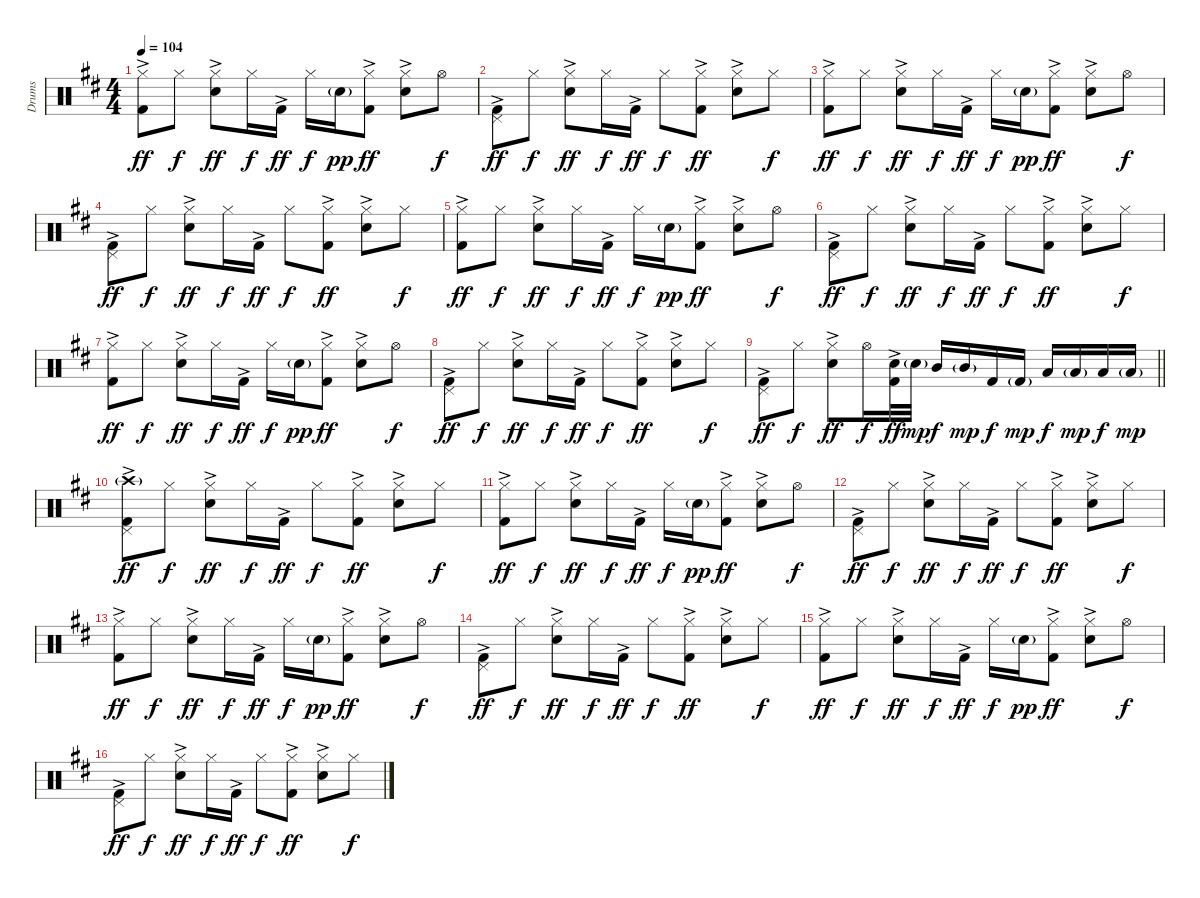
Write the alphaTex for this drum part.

\track ("Drums" "Drums") {instrument percussion}
\staff {score}
\articulation defaults
\ts (4 4)
\tempo 104
\clef neutral
\ks d
("Hi-Hat (closed)" "Kick (hit) 2"{ac}).8{dy ff} "Hi-Hat (closed)".8{dy f} ("Hi-Hat (closed)" "Snare (hit) 2"{ac}).8{dy ff} "Hi-Hat (closed)".16{dy f} "Kick (hit) 2"{ac}.16{dy ff} "Hi-Hat (closed)".16{dy f} "Snare (hit) 2"{g}.16{dy pp} ("Hi-Hat (closed)" "Kick (hit) 2"{ac}).8{dy ff} ("Hi-Hat (closed)" "Snare (hit) 2"{ac}).8 "Hi-Hat (open)".8{dy f} |
("Pedal Hi-Hat (hit)" "Kick (hit) 2"{ac}).8{dy ff} "Hi-Hat (closed)".8{dy f} ("Hi-Hat (closed)" "Snare (hit) 2"{ac}).8{dy ff} "Hi-Hat (closed)".16{dy f} "Kick (hit) 2"{ac}.16{dy ff} "Hi-Hat (closed)".8{dy f} ("Hi-Hat (closed)" "Kick (hit) 2"{ac}).8{dy ff} ("Hi-Hat (closed)" "Snare (hit) 2"{ac}).8 "Hi-Hat (closed)".8{dy f} |
("Hi-Hat (closed)" "Kick (hit) 2"{ac}).8{dy ff} "Hi-Hat (closed)".8{dy f} ("Hi-Hat (closed)" "Snare (hit) 2"{ac}).8{dy ff} "Hi-Hat (closed)".16{dy f} "Kick (hit) 2"{ac}.16{dy ff} "Hi-Hat (closed)".16{dy f} "Snare (hit) 2"{g}.16{dy pp} ("Hi-Hat (closed)" "Kick (hit) 2"{ac}).8{dy ff} ("Hi-Hat (closed)" "Snare (hit) 2"{ac}).8 "Hi-Hat (open)".8{dy f} |
("Pedal Hi-Hat (hit)" "Kick (hit) 2"{ac}).8{dy ff} "Hi-Hat (closed)".8{dy f} ("Hi-Hat (closed)" "Snare (hit) 2"{ac}).8{dy ff} "Hi-Hat (closed)".16{dy f} "Kick (hit) 2"{ac}.16{dy ff} "Hi-Hat (closed)".8{dy f} ("Hi-Hat (closed)" "Kick (hit) 2"{ac}).8{dy ff} ("Hi-Hat (closed)" "Snare (hit) 2"{ac}).8 "Hi-Hat (closed)".8{dy f} |
("Hi-Hat (closed)" "Kick (hit) 2"{ac}).8{dy ff} "Hi-Hat (closed)".8{dy f} ("Hi-Hat (closed)" "Snare (hit) 2"{ac}).8{dy ff} "Hi-Hat (closed)".16{dy f} "Kick (hit) 2"{ac}.16{dy ff} "Hi-Hat (closed)".16{dy f} "Snare (hit) 2"{g}.16{dy pp} ("Hi-Hat (closed)" "Kick (hit) 2"{ac}).8{dy ff} ("Hi-Hat (closed)" "Snare (hit) 2"{ac}).8 "Hi-Hat (open)".8{dy f} |
("Pedal Hi-Hat (hit)" "Kick (hit) 2"{ac}).8{dy ff} "Hi-Hat (closed)".8{dy f} ("Hi-Hat (closed)" "Snare (hit) 2"{ac}).8{dy ff} "Hi-Hat (closed)".16{dy f} "Kick (hit) 2"{ac}.16{dy ff} "Hi-Hat (closed)".8{dy f} ("Hi-Hat (closed)" "Kick (hit) 2"{ac}).8{dy ff} ("Hi-Hat (closed)" "Snare (hit) 2"{ac}).8 "Hi-Hat (closed)".8{dy f} |
("Hi-Hat (closed)" "Kick (hit) 2"{ac}).8{dy ff} "Hi-Hat (closed)".8{dy f} ("Hi-Hat (closed)" "Snare (hit) 2"{ac}).8{dy ff} "Hi-Hat (closed)".16{dy f} "Kick (hit) 2"{ac}.16{dy ff} "Hi-Hat (closed)".16{dy f} "Snare (hit) 2"{g}.16{dy pp} ("Hi-Hat (closed)" "Kick (hit) 2"{ac}).8{dy ff} ("Hi-Hat (closed)" "Snare (hit) 2"{ac}).8 "Hi-Hat (open)".8{dy f} |
("Pedal Hi-Hat (hit)" "Kick (hit) 2"{ac}).8{dy ff} "Hi-Hat (closed)".8{dy f} ("Hi-Hat (closed)" "Snare (hit) 2"{ac}).8{dy ff} "Hi-Hat (closed)".16{dy f} "Kick (hit) 2"{ac}.16{dy ff} "Hi-Hat (closed)".8{dy f} ("Hi-Hat (closed)" "Kick (hit) 2"{ac}).8{dy ff} ("Hi-Hat (closed)" "Snare (hit) 2"{ac}).8 "Hi-Hat (closed)".8{dy f} |
\barLineRight lightlight
("Pedal Hi-Hat (hit)" "Kick (hit) 2"{ac}).8{dy ff} "Hi-Hat (closed)".8{dy f} ("Hi-Hat (closed)" "Snare (hit) 2"{ac}).8{dy ff} "Hi-Hat (open)".16{dy f} ("Snare (hit) 2" "Kick (hit) 2"{ac}).32{dy ff} "Snare (hit) 2"{g}.32{dy mp} "Mid Tom (hit)".16{dy f} "Mid Tom (hit)"{g}.16{dy mp} "Kick (hit) 2".16{dy f} "Kick (hit) 2"{g}.16{dy mp} "Low Tom (hit)".16{dy f} "Low Tom (hit)"{g}.16{dy mp} "Low Floor Tom (hit)".16{dy f} "Low Floor Tom (hit)"{g}.16{dy mp} |
("Pedal Hi-Hat (hit)" "Crash high (hit)"{g} "Kick (hit) 2"{ac}).8{dy ff} "Hi-Hat (closed)".8{dy f} ("Hi-Hat (closed)" "Snare (hit) 2"{ac}).8{dy ff} "Hi-Hat (closed)".16{dy f} "Kick (hit) 2"{ac}.16{dy ff} "Hi-Hat (closed)".8{dy f} ("Hi-Hat (closed)" "Kick (hit) 2"{ac}).8{dy ff} ("Hi-Hat (closed)" "Snare (hit) 2"{ac}).8 "Hi-Hat (closed)".8{dy f} |
("Hi-Hat (closed)" "Kick (hit) 2"{ac}).8{dy ff} "Hi-Hat (closed)".8{dy f} ("Hi-Hat (closed)" "Snare (hit) 2"{ac}).8{dy ff} "Hi-Hat (closed)".16{dy f} "Kick (hit) 2"{ac}.16{dy ff} "Hi-Hat (closed)".16{dy f} "Snare (hit) 2"{g}.16{dy pp} ("Hi-Hat (closed)" "Kick (hit) 2"{ac}).8{dy ff} ("Hi-Hat (closed)" "Snare (hit) 2"{ac}).8 "Hi-Hat (open)".8{dy f} |
("Pedal Hi-Hat (hit)" "Kick (hit) 2"{ac}).8{dy ff} "Hi-Hat (closed)".8{dy f} ("Hi-Hat (closed)" "Snare (hit) 2"{ac}).8{dy ff} "Hi-Hat (closed)".16{dy f} "Kick (hit) 2"{ac}.16{dy ff} "Hi-Hat (closed)".8{dy f} ("Hi-Hat (closed)" "Kick (hit) 2"{ac}).8{dy ff} ("Hi-Hat (closed)" "Snare (hit) 2"{ac}).8 "Hi-Hat (closed)".8{dy f} |
("Hi-Hat (closed)" "Kick (hit) 2"{ac}).8{dy ff} "Hi-Hat (closed)".8{dy f} ("Hi-Hat (closed)" "Snare (hit) 2"{ac}).8{dy ff} "Hi-Hat (closed)".16{dy f} "Kick (hit) 2"{ac}.16{dy ff} "Hi-Hat (closed)".16{dy f} "Snare (hit) 2"{g}.16{dy pp} ("Hi-Hat (closed)" "Kick (hit) 2"{ac}).8{dy ff} ("Hi-Hat (closed)" "Snare (hit) 2"{ac}).8 "Hi-Hat (open)".8{dy f} |
("Pedal Hi-Hat (hit)" "Kick (hit) 2"{ac}).8{dy ff} "Hi-Hat (closed)".8{dy f} ("Hi-Hat (closed)" "Snare (hit) 2"{ac}).8{dy ff} "Hi-Hat (closed)".16{dy f} "Kick (hit) 2"{ac}.16{dy ff} "Hi-Hat (closed)".8{dy f} ("Hi-Hat (closed)" "Kick (hit) 2"{ac}).8{dy ff} ("Hi-Hat (closed)" "Snare (hit) 2"{ac}).8 "Hi-Hat (closed)".8{dy f} |
("Hi-Hat (closed)" "Kick (hit) 2"{ac}).8{dy ff} "Hi-Hat (closed)".8{dy f} ("Hi-Hat (closed)" "Snare (hit) 2"{ac}).8{dy ff} "Hi-Hat (closed)".16{dy f} "Kick (hit) 2"{ac}.16{dy ff} "Hi-Hat (closed)".16{dy f} "Snare (hit) 2"{g}.16{dy pp} ("Hi-Hat (closed)" "Kick (hit) 2"{ac}).8{dy ff} ("Hi-Hat (closed)" "Snare (hit) 2"{ac}).8 "Hi-Hat (open)".8{dy f} |
("Pedal Hi-Hat (hit)" "Kick (hit) 2"{ac}).8{dy ff} "Hi-Hat (closed)".8{dy f} ("Hi-Hat (closed)" "Snare (hit) 2"{ac}).8{dy ff} "Hi-Hat (closed)".16{dy f} "Kick (hit) 2"{ac}.16{dy ff} "Hi-Hat (closed)".8{dy f} ("Hi-Hat (closed)" "Kick (hit) 2"{ac}).8{dy ff} ("Hi-Hat (closed)" "Snare (hit) 2"{ac}).8 "Hi-Hat (closed)".8{dy f}
